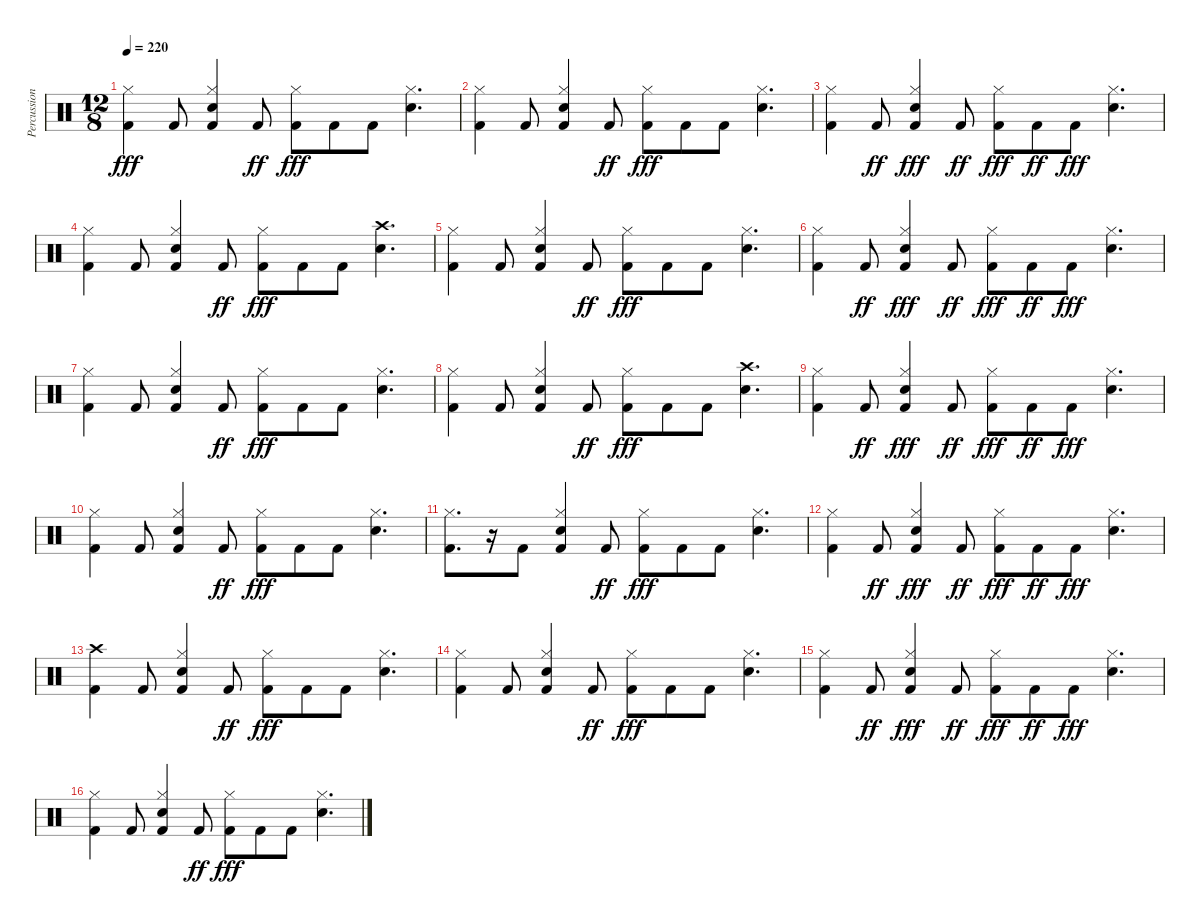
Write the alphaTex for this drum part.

\track ("Percussion" "Percussion") {instrument percussion}
\staff {score}
\articulation defaults
\ts (12 8)
\tempo 220
\clef neutral
\ks c
("Kick (hit) 2" "Hi-Hat (closed)").4{dy fff} "Kick (hit) 2".8 ("Kick (hit) 2" "Snare (hit) 2" "Hi-Hat (closed)").4 "Kick (hit) 2".8{dy ff} ("Kick (hit) 2" "Hi-Hat (closed)").8{dy fff} "Kick (hit) 2".8 "Kick (hit) 2".8 ("Snare (hit) 2" "Hi-Hat (closed)").4{d} |
("Kick (hit) 2" "Hi-Hat (closed)").4 "Kick (hit) 2".8 ("Kick (hit) 2" "Snare (hit) 2" "Hi-Hat (closed)").4 "Kick (hit) 2".8{dy ff} ("Kick (hit) 2" "Hi-Hat (closed)").8{dy fff} "Kick (hit) 2".8 "Kick (hit) 2".8 ("Snare (hit) 2" "Hi-Hat (closed)").4{d} |
("Kick (hit) 2" "Hi-Hat (closed)").4 "Kick (hit) 2".8{dy ff} ("Kick (hit) 2" "Snare (hit) 2" "Hi-Hat (closed)").4{dy fff} "Kick (hit) 2".8{dy ff} ("Kick (hit) 2" "Hi-Hat (closed)").8{dy fff} "Kick (hit) 2".8{dy ff} "Kick (hit) 2".8{dy fff} ("Snare (hit) 2" "Hi-Hat (closed)").4{d} |
("Kick (hit) 2" "Hi-Hat (closed)").4 "Kick (hit) 2".8 ("Kick (hit) 2" "Snare (hit) 2" "Hi-Hat (closed)").4 "Kick (hit) 2".8{dy ff} ("Kick (hit) 2" "Hi-Hat (closed)").8{dy fff} "Kick (hit) 2".8 "Kick (hit) 2".8 ("Snare (hit) 2" "Crash high (hit)").4{d} |
("Kick (hit) 2" "Hi-Hat (closed)").4 "Kick (hit) 2".8 ("Kick (hit) 2" "Snare (hit) 2" "Hi-Hat (closed)").4 "Kick (hit) 2".8{dy ff} ("Kick (hit) 2" "Hi-Hat (closed)").8{dy fff} "Kick (hit) 2".8 "Kick (hit) 2".8 ("Snare (hit) 2" "Hi-Hat (closed)").4{d} |
("Kick (hit) 2" "Hi-Hat (closed)").4 "Kick (hit) 2".8{dy ff} ("Kick (hit) 2" "Snare (hit) 2" "Hi-Hat (closed)").4{dy fff} "Kick (hit) 2".8{dy ff} ("Kick (hit) 2" "Hi-Hat (closed)").8{dy fff} "Kick (hit) 2".8{dy ff} "Kick (hit) 2".8{dy fff} ("Snare (hit) 2" "Hi-Hat (closed)").4{d} |
("Kick (hit) 2" "Hi-Hat (closed)").4 "Kick (hit) 2".8 ("Kick (hit) 2" "Snare (hit) 2" "Hi-Hat (closed)").4 "Kick (hit) 2".8{dy ff} ("Kick (hit) 2" "Hi-Hat (closed)").8{dy fff} "Kick (hit) 2".8 "Kick (hit) 2".8 ("Snare (hit) 2" "Hi-Hat (closed)").4{d} |
("Kick (hit) 2" "Hi-Hat (closed)").4 "Kick (hit) 2".8 ("Kick (hit) 2" "Snare (hit) 2" "Hi-Hat (closed)").4 "Kick (hit) 2".8{dy ff} ("Kick (hit) 2" "Hi-Hat (closed)").8{dy fff} "Kick (hit) 2".8 "Kick (hit) 2".8 ("Snare (hit) 2" "Crash high (hit)").4{d} |
("Kick (hit) 2" "Hi-Hat (closed)").4 "Kick (hit) 2".8{dy ff} ("Kick (hit) 2" "Snare (hit) 2" "Hi-Hat (closed)").4{dy fff} "Kick (hit) 2".8{dy ff} ("Kick (hit) 2" "Hi-Hat (closed)").8{dy fff} "Kick (hit) 2".8{dy ff} "Kick (hit) 2".8{dy fff} ("Snare (hit) 2" "Hi-Hat (closed)").4{d} |
("Kick (hit) 2" "Hi-Hat (closed)").4 "Kick (hit) 2".8 ("Kick (hit) 2" "Snare (hit) 2" "Hi-Hat (closed)").4 "Kick (hit) 2".8{dy ff} ("Kick (hit) 2" "Hi-Hat (closed)").8{dy fff} "Kick (hit) 2".8 "Kick (hit) 2".8 ("Snare (hit) 2" "Hi-Hat (closed)").4{d} |
("Kick (hit) 2" "Hi-Hat (closed)").8{d} r.16 "Kick (hit) 2".8 ("Kick (hit) 2" "Snare (hit) 2" "Hi-Hat (closed)").4 "Kick (hit) 2".8{dy ff} ("Kick (hit) 2" "Hi-Hat (closed)").8{dy fff} "Kick (hit) 2".8 "Kick (hit) 2".8 ("Snare (hit) 2" "Hi-Hat (closed)").4{d} |
("Kick (hit) 2" "Hi-Hat (closed)").4 "Kick (hit) 2".8{dy ff} ("Kick (hit) 2" "Snare (hit) 2" "Hi-Hat (closed)").4{dy fff} "Kick (hit) 2".8{dy ff} ("Kick (hit) 2" "Hi-Hat (closed)").8{dy fff} "Kick (hit) 2".8{dy ff} "Kick (hit) 2".8{dy fff} ("Snare (hit) 2" "Hi-Hat (closed)").4{d} |
("Kick (hit) 2" "Crash high (hit)").4 "Kick (hit) 2".8 ("Kick (hit) 2" "Snare (hit) 2" "Hi-Hat (closed)").4 "Kick (hit) 2".8{dy ff} ("Kick (hit) 2" "Hi-Hat (closed)").8{dy fff} "Kick (hit) 2".8 "Kick (hit) 2".8 ("Snare (hit) 2" "Hi-Hat (closed)").4{d} |
("Kick (hit) 2" "Hi-Hat (closed)").4 "Kick (hit) 2".8 ("Kick (hit) 2" "Snare (hit) 2" "Hi-Hat (closed)").4 "Kick (hit) 2".8{dy ff} ("Kick (hit) 2" "Hi-Hat (closed)").8{dy fff} "Kick (hit) 2".8 "Kick (hit) 2".8 ("Snare (hit) 2" "Hi-Hat (closed)").4{d} |
("Kick (hit) 2" "Hi-Hat (closed)").4 "Kick (hit) 2".8{dy ff} ("Kick (hit) 2" "Snare (hit) 2" "Hi-Hat (closed)").4{dy fff} "Kick (hit) 2".8{dy ff} ("Kick (hit) 2" "Hi-Hat (closed)").8{dy fff} "Kick (hit) 2".8{dy ff} "Kick (hit) 2".8{dy fff} ("Snare (hit) 2" "Hi-Hat (closed)").4{d} |
("Kick (hit) 2" "Hi-Hat (closed)").4 "Kick (hit) 2".8 ("Kick (hit) 2" "Snare (hit) 2" "Hi-Hat (closed)").4 "Kick (hit) 2".8{dy ff} ("Kick (hit) 2" "Hi-Hat (closed)").8{dy fff} "Kick (hit) 2".8 "Kick (hit) 2".8 ("Snare (hit) 2" "Hi-Hat (closed)").4{d}
